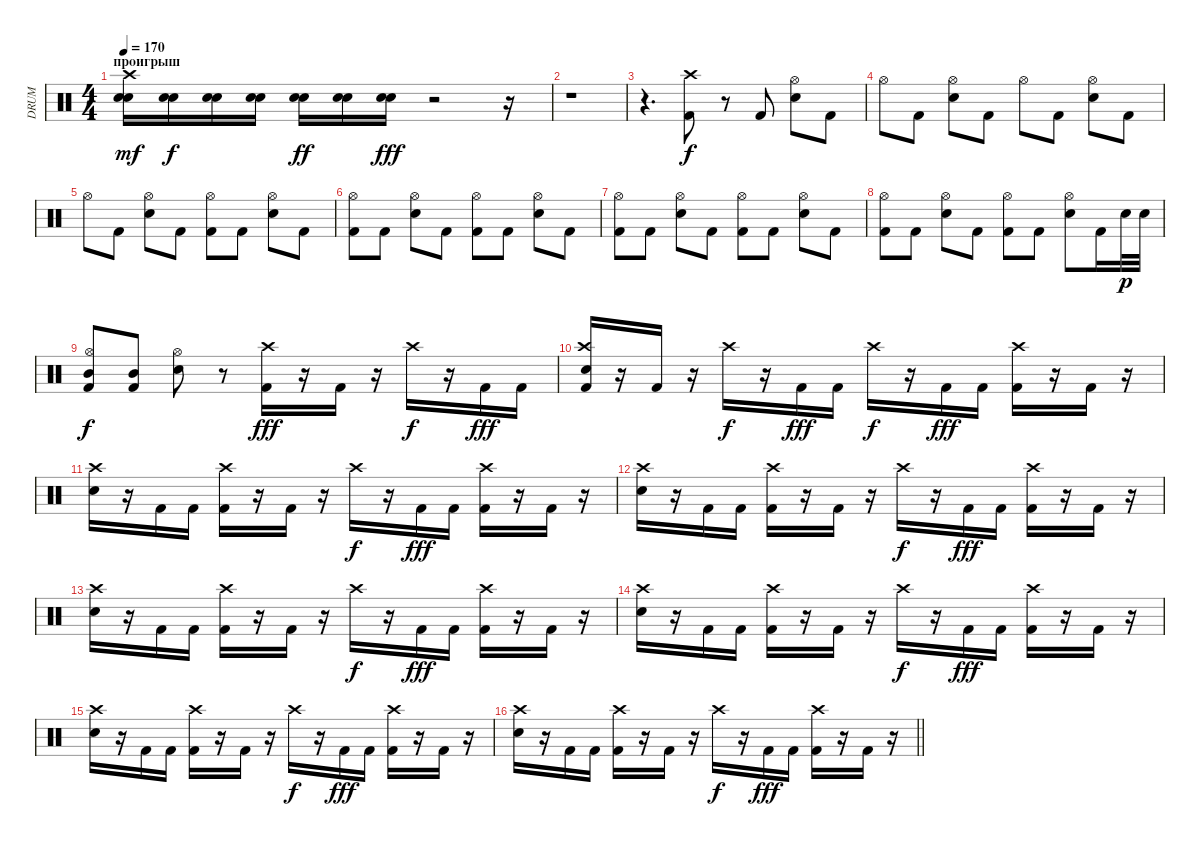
\track ("DRUM" "DRUM") {instrument percussion}
\staff {score}
\articulation defaults
\ts (4 4)
\section ("" "проигрыш")
\tempo 170
\clef neutral
\ks c
("Snare (hit) 2" "Electric Snare (hit)" "Crash high (hit)").16{dy mf} ("Snare (hit) 2" "Electric Snare (hit)").16{dy f} ("Snare (hit) 2" "Electric Snare (hit)").16 ("Snare (hit) 2" "Electric Snare (hit)").16 ("Snare (hit) 2" "Electric Snare (hit)").16{dy ff} ("Snare (hit) 2" "Electric Snare (hit)").16 ("Snare (hit) 2" "Electric Snare (hit)").16{dy fff} r.2 r.16 |
r.1 |
r.4{d} ("Kick (hit) 2" "Crash high (hit)").8{dy f} r.8 "Kick (hit) 2".8 ("Hi-Hat (open)" "Snare (hit) 2").8 "Kick (hit) 2".8 |
"Hi-Hat (open)".8 "Kick (hit) 2".8 ("Hi-Hat (open)" "Snare (hit) 2").8 "Kick (hit) 2".8 "Hi-Hat (open)".8 "Kick (hit) 2".8 ("Hi-Hat (open)" "Snare (hit) 2").8 "Kick (hit) 2".8 |
"Hi-Hat (open)".8 "Kick (hit) 2".8 ("Hi-Hat (open)" "Snare (hit) 2").8 "Kick (hit) 2".8 ("Hi-Hat (open)" "Kick (hit) 2").8 "Kick (hit) 2".8 ("Hi-Hat (open)" "Snare (hit) 2").8 "Kick (hit) 2".8 |
("Kick (hit) 2" "Hi-Hat (open)").8 "Kick (hit) 2".8 ("Hi-Hat (open)" "Snare (hit) 2").8 "Kick (hit) 2".8 ("Hi-Hat (open)" "Kick (hit) 2").8 "Kick (hit) 2".8 ("Hi-Hat (open)" "Snare (hit) 2").8 "Kick (hit) 2".8 |
("Kick (hit) 2" "Hi-Hat (open)").8 "Kick (hit) 2".8 ("Hi-Hat (open)" "Snare (hit) 2").8 "Kick (hit) 2".8 ("Hi-Hat (open)" "Kick (hit) 2").8 "Kick (hit) 2".8 ("Hi-Hat (open)" "Snare (hit) 2").8 "Kick (hit) 2".8 |
("Kick (hit) 2" "Hi-Hat (open)").8 "Kick (hit) 2".8 ("Hi-Hat (open)" "Snare (hit) 2").8 "Kick (hit) 2".8 ("Hi-Hat (open)" "Kick (hit) 2").8 "Kick (hit) 2".8 ("Hi-Hat (open)" "Snare (hit) 2").8 "Kick (hit) 2".16 "Electric Snare (hit)".32{dy p} "Electric Snare (hit)".32 |
("Mid Tom (hit)" "Kick (hit) 2" "Hi-Hat (open)").8{dy f} ("Mid Tom (hit)" "Kick (hit) 2").8 ("Hi-Hat (open)" "Snare (hit) 2").8 r.8 ("Kick (hit) 2" "Crash high (hit)").16{dy fff} r.16 "Kick (hit) 2".16 r.16 "Crash high (hit)".16{dy f} r.16 "Kick (hit) 2".16{dy fff} "Kick (hit) 2".16 |
("Crash high (hit)" "Electric Snare (hit)" "Kick (hit) 2").16 r.16 "Kick (hit) 2".16 r.16 "Crash high (hit)".16{dy f} r.16 "Kick (hit) 2".16{dy fff} "Kick (hit) 2".16 "Crash high (hit)".16{dy f} r.16 "Kick (hit) 2".16{dy fff} "Kick (hit) 2".16 ("Crash high (hit)" "Kick (hit) 2").16 r.16 "Kick (hit) 2".16 r.16 |
("Crash high (hit)" "Electric Snare (hit)").16 r.16 "Kick (hit) 2".16 "Kick (hit) 2".16 ("Crash high (hit)" "Kick (hit) 2").16 r.16 "Kick (hit) 2".16 r.16 "Crash high (hit)".16{dy f} r.16 "Kick (hit) 2".16{dy fff} "Kick (hit) 2".16 ("Crash high (hit)" "Kick (hit) 2").16 r.16 "Kick (hit) 2".16 r.16 |
("Crash high (hit)" "Electric Snare (hit)").16 r.16 "Kick (hit) 2".16 "Kick (hit) 2".16 ("Crash high (hit)" "Kick (hit) 2").16 r.16 "Kick (hit) 2".16 r.16 "Crash high (hit)".16{dy f} r.16 "Kick (hit) 2".16{dy fff} "Kick (hit) 2".16 ("Crash high (hit)" "Kick (hit) 2").16 r.16 "Kick (hit) 2".16 r.16 |
("Crash high (hit)" "Electric Snare (hit)").16 r.16 "Kick (hit) 2".16 "Kick (hit) 2".16 ("Crash high (hit)" "Kick (hit) 2").16 r.16 "Kick (hit) 2".16 r.16 "Crash high (hit)".16{dy f} r.16 "Kick (hit) 2".16{dy fff} "Kick (hit) 2".16 ("Crash high (hit)" "Kick (hit) 2").16 r.16 "Kick (hit) 2".16 r.16 |
("Crash high (hit)" "Electric Snare (hit)").16 r.16 "Kick (hit) 2".16 "Kick (hit) 2".16 ("Crash high (hit)" "Kick (hit) 2").16 r.16 "Kick (hit) 2".16 r.16 "Crash high (hit)".16{dy f} r.16 "Kick (hit) 2".16{dy fff} "Kick (hit) 2".16 ("Crash high (hit)" "Kick (hit) 2").16 r.16 "Kick (hit) 2".16 r.16 |
("Crash high (hit)" "Electric Snare (hit)").16 r.16 "Kick (hit) 2".16 "Kick (hit) 2".16 ("Crash high (hit)" "Kick (hit) 2").16 r.16 "Kick (hit) 2".16 r.16 "Crash high (hit)".16{dy f} r.16 "Kick (hit) 2".16{dy fff} "Kick (hit) 2".16 ("Crash high (hit)" "Kick (hit) 2").16 r.16 "Kick (hit) 2".16 r.16 |
\barLineRight lightlight
("Crash high (hit)" "Electric Snare (hit)").16 r.16 "Kick (hit) 2".16 "Kick (hit) 2".16 ("Crash high (hit)" "Kick (hit) 2").16 r.16 "Kick (hit) 2".16 r.16 "Crash high (hit)".16{dy f} r.16 "Kick (hit) 2".16{dy fff} "Kick (hit) 2".16 ("Crash high (hit)" "Kick (hit) 2").16 r.16 "Kick (hit) 2".16 r.16
